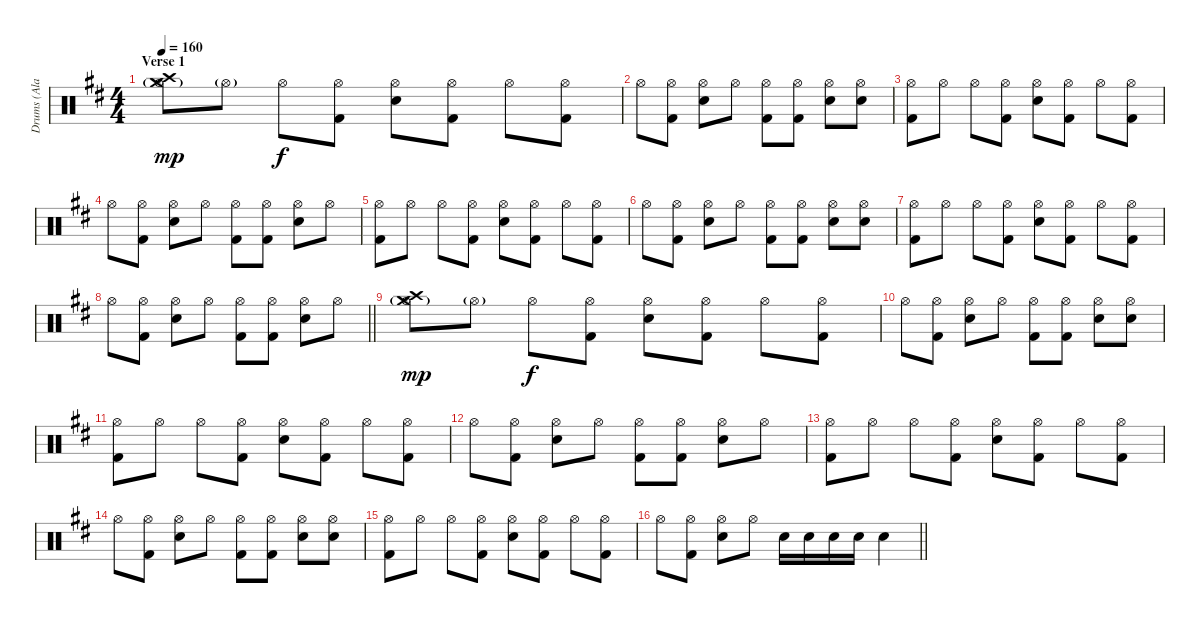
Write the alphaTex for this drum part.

\track ("Drums (Ala Burns)" "Drums (Ala") {instrument percussion}
\staff {score}
\articulation defaults
\ts (4 4)
\section ("" "Verse 1")
\tempo 160
\clef neutral
\ks d
("Crash medium (hit)" "Crash high (hit)" "Hi-Hat (open)"{g}).8{dy mp} "Hi-Hat (open)"{g}.8 "Hi-Hat (open)".8{dy f} ("Hi-Hat (open)" "Kick (hit) 2").8 ("Snare (hit) 2" "Hi-Hat (open)").8 ("Hi-Hat (open)" "Kick (hit) 2").8 "Hi-Hat (open)".8 ("Hi-Hat (open)" "Kick (hit) 2").8 |
"Hi-Hat (open)".8 ("Hi-Hat (open)" "Kick (hit) 2").8 ("Snare (hit) 2" "Hi-Hat (open)").8 "Hi-Hat (open)".8 ("Hi-Hat (open)" "Kick (hit) 2").8 ("Hi-Hat (open)" "Kick (hit) 2").8 ("Snare (hit) 2" "Hi-Hat (open)").8 ("Snare (hit) 2" "Hi-Hat (open)").8 |
("Hi-Hat (open)" "Kick (hit) 2").8 "Hi-Hat (open)".8 "Hi-Hat (open)".8 ("Hi-Hat (open)" "Kick (hit) 2").8 ("Snare (hit) 2" "Hi-Hat (open)").8 ("Hi-Hat (open)" "Kick (hit) 2").8 "Hi-Hat (open)".8 ("Hi-Hat (open)" "Kick (hit) 2").8 |
"Hi-Hat (open)".8 ("Hi-Hat (open)" "Kick (hit) 2").8 ("Snare (hit) 2" "Hi-Hat (open)").8 "Hi-Hat (open)".8 ("Hi-Hat (open)" "Kick (hit) 2").8 ("Hi-Hat (open)" "Kick (hit) 2").8 ("Snare (hit) 2" "Hi-Hat (open)").8 "Hi-Hat (open)".8 |
("Hi-Hat (open)" "Kick (hit) 2").8 "Hi-Hat (open)".8 "Hi-Hat (open)".8 ("Hi-Hat (open)" "Kick (hit) 2").8 ("Snare (hit) 2" "Hi-Hat (open)").8 ("Hi-Hat (open)" "Kick (hit) 2").8 "Hi-Hat (open)".8 ("Hi-Hat (open)" "Kick (hit) 2").8 |
"Hi-Hat (open)".8 ("Hi-Hat (open)" "Kick (hit) 2").8 ("Snare (hit) 2" "Hi-Hat (open)").8 "Hi-Hat (open)".8 ("Hi-Hat (open)" "Kick (hit) 2").8 ("Hi-Hat (open)" "Kick (hit) 2").8 ("Snare (hit) 2" "Hi-Hat (open)").8 ("Snare (hit) 2" "Hi-Hat (open)").8 |
("Hi-Hat (open)" "Kick (hit) 2").8 "Hi-Hat (open)".8 "Hi-Hat (open)".8 ("Hi-Hat (open)" "Kick (hit) 2").8 ("Snare (hit) 2" "Hi-Hat (open)").8 ("Hi-Hat (open)" "Kick (hit) 2").8 "Hi-Hat (open)".8 ("Hi-Hat (open)" "Kick (hit) 2").8 |
\barLineRight lightlight "Hi-Hat (open)".8
("Hi-Hat (open)" "Kick (hit) 2").8 ("Snare (hit) 2" "Hi-Hat (open)").8 "Hi-Hat (open)".8 ("Hi-Hat (open)" "Kick (hit) 2").8 ("Hi-Hat (open)" "Kick (hit) 2").8 ("Snare (hit) 2" "Hi-Hat (open)").8 "Hi-Hat (open)".8 |
("Crash medium (hit)" "Crash high (hit)" "Hi-Hat (open)"{g}).8{dy mp} "Hi-Hat (open)"{g}.8 "Hi-Hat (open)".8{dy f} ("Hi-Hat (open)" "Kick (hit) 2").8 ("Snare (hit) 2" "Hi-Hat (open)").8 ("Hi-Hat (open)" "Kick (hit) 2").8 "Hi-Hat (open)".8 ("Hi-Hat (open)" "Kick (hit) 2").8 |
"Hi-Hat (open)".8 ("Hi-Hat (open)" "Kick (hit) 2").8 ("Snare (hit) 2" "Hi-Hat (open)").8 "Hi-Hat (open)".8 ("Hi-Hat (open)" "Kick (hit) 2").8 ("Hi-Hat (open)" "Kick (hit) 2").8 ("Snare (hit) 2" "Hi-Hat (open)").8 ("Snare (hit) 2" "Hi-Hat (open)").8 |
("Hi-Hat (open)" "Kick (hit) 2").8 "Hi-Hat (open)".8 "Hi-Hat (open)".8 ("Hi-Hat (open)" "Kick (hit) 2").8 ("Snare (hit) 2" "Hi-Hat (open)").8 ("Hi-Hat (open)" "Kick (hit) 2").8 "Hi-Hat (open)".8 ("Hi-Hat (open)" "Kick (hit) 2").8 |
"Hi-Hat (open)".8 ("Hi-Hat (open)" "Kick (hit) 2").8 ("Snare (hit) 2" "Hi-Hat (open)").8 "Hi-Hat (open)".8 ("Hi-Hat (open)" "Kick (hit) 2").8 ("Hi-Hat (open)" "Kick (hit) 2").8 ("Snare (hit) 2" "Hi-Hat (open)").8 "Hi-Hat (open)".8 |
("Hi-Hat (open)" "Kick (hit) 2").8 "Hi-Hat (open)".8 "Hi-Hat (open)".8 ("Hi-Hat (open)" "Kick (hit) 2").8 ("Snare (hit) 2" "Hi-Hat (open)").8 ("Hi-Hat (open)" "Kick (hit) 2").8 "Hi-Hat (open)".8 ("Hi-Hat (open)" "Kick (hit) 2").8 |
"Hi-Hat (open)".8 ("Hi-Hat (open)" "Kick (hit) 2").8 ("Snare (hit) 2" "Hi-Hat (open)").8 "Hi-Hat (open)".8 ("Hi-Hat (open)" "Kick (hit) 2").8 ("Hi-Hat (open)" "Kick (hit) 2").8 ("Snare (hit) 2" "Hi-Hat (open)").8 ("Snare (hit) 2" "Hi-Hat (open)").8 |
("Hi-Hat (open)" "Kick (hit) 2").8 "Hi-Hat (open)".8 "Hi-Hat (open)".8 ("Hi-Hat (open)" "Kick (hit) 2").8 ("Snare (hit) 2" "Hi-Hat (open)").8 ("Hi-Hat (open)" "Kick (hit) 2").8 "Hi-Hat (open)".8 ("Hi-Hat (open)" "Kick (hit) 2").8 |
\barLineRight lightlight "Hi-Hat (open)".8
("Hi-Hat (open)" "Kick (hit) 2").8 ("Snare (hit) 2" "Hi-Hat (open)").8 "Hi-Hat (open)".8 "Snare (hit) 2".16 "Snare (hit) 2".16 "Snare (hit) 2".16 "Snare (hit) 2".16 "Snare (hit) 2".4
